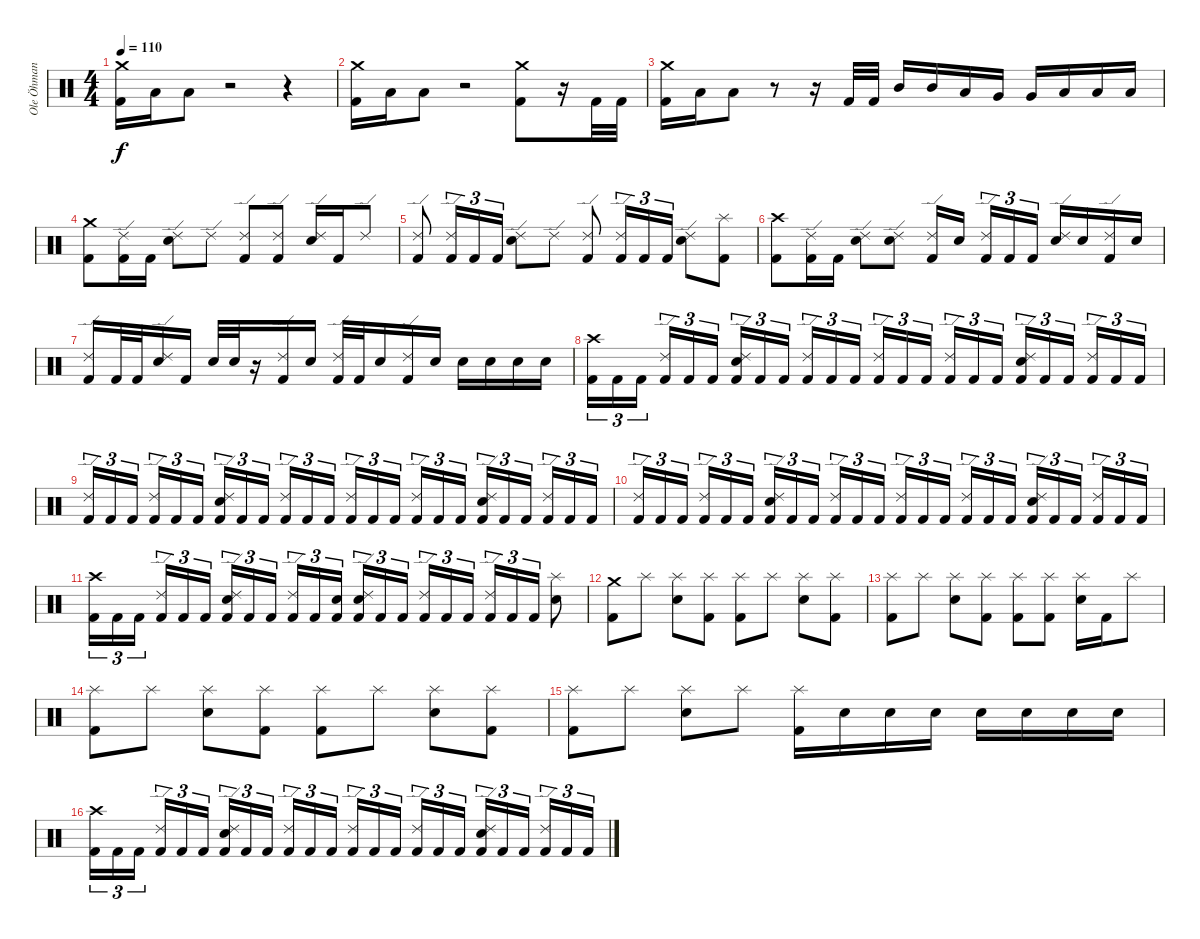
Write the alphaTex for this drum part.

\track ("Ole Öhman" "Ole Öhman") {instrument percussion}
\staff {score}
\articulation defaults
\ts (4 4)
\tempo 110
\clef neutral
\ks c
("Crash medium (hit)" "Kick (hit) 2").16{dy f} "Low Tom (hit)".16 "Low Tom (hit)".8 r.2 r.4 |
("Crash medium (hit)" "Kick (hit) 2").16 "Low Tom (hit)".16 "Low Tom (hit)".8 r.2 ("Crash medium (hit)" "Kick (hit) 2").8 r.16 "Kick (hit) 2".32 "Kick (hit) 2".32 |
("Crash medium (hit)" "Kick (hit) 2").16 "Low Tom (hit)".16 "Low Tom (hit)".8 r.8 r.16 "Kick (hit) 2".32 "Kick (hit) 2".32 "Mid Tom (hit)".16 "Mid Tom (hit)".16 "Low Tom (hit)".16 "Very Low Tom (hit)".16 "Very Low Tom (hit)".16 "Low Floor Tom (hit)".16 "Low Floor Tom (hit)".16 "Low Floor Tom (hit)".16 |
("Crash medium (hit)" "Kick (hit) 2").8 ("Ride (edge) 2" "Kick (hit) 2").16 "Kick (hit) 2".16 ("Ride (edge) 2" "Electric Snare (hit)").8 "Ride (edge) 2".8 ("Ride (edge) 2" "Kick (hit) 2").8 ("Ride (edge) 2" "Kick (hit) 2").8 ("Ride (edge) 2" "Electric Snare (hit)").16 "Kick (hit) 2".16 "Ride (edge) 2".8 |
("Ride (edge) 2" "Kick (hit) 2").8 ("Ride (edge) 2" "Kick (hit) 2").16{tu (3 2)} "Kick (hit) 2".16{tu (3 2)} "Kick (hit) 2".16{tu (3 2)} ("Ride (edge) 2" "Electric Snare (hit)").8 "Ride (edge) 2".8 ("Ride (edge) 2" "Kick (hit) 2").8 ("Ride (edge) 2" "Kick (hit) 2").16{tu (3 2)} "Kick (hit) 2".16{tu (3 2)} "Kick (hit) 2".16{tu (3 2)} ("Ride (edge) 2" "Electric Snare (hit)").8 ("Splash (hit)" "Kick (hit) 2").8 |
("Crash high (hit)" "Kick (hit) 2").8 ("Ride (edge) 2" "Kick (hit) 2").16 "Kick (hit) 2".16 ("Ride (edge) 2" "Electric Snare (hit)").8 ("Ride (edge) 2" "Electric Snare (hit)").8 ("Ride (edge) 2" "Kick (hit) 2").16 "Electric Snare (hit)".16{beam splitsecondary} ("Ride (edge) 2" "Kick (hit) 2").16{tu (3 2)} "Kick (hit) 2".16{tu (3 2)} "Kick (hit) 2".16{tu (3 2)} ("Ride (edge) 2" "Electric Snare (hit)").16 "Electric Snare (hit)".16 ("Ride (edge) 2" "Kick (hit) 2").16 "Electric Snare (hit)".16 |
("Ride (edge) 2" "Kick (hit) 2").16 "Kick (hit) 2".32 "Kick (hit) 2".32 ("Ride (edge) 2" "Electric Snare (hit)").16 "Kick (hit) 2".16 "Electric Snare (hit)".32 "Electric Snare (hit)".32 r.16 ("Ride (edge) 2" "Kick (hit) 2").16 "Electric Snare (hit)".16 ("Ride (edge) 2" "Kick (hit) 2").32 "Kick (hit) 2".32 "Electric Snare (hit)".16 ("Ride (edge) 2" "Kick (hit) 2").16 "Electric Snare (hit)".16 "Electric Snare (hit)".16 "Electric Snare (hit)".16 "Electric Snare (hit)".16 "Electric Snare (hit)".16 |
("Crash high (hit)" "Kick (hit) 2").16{tu (3 2)} "Kick (hit) 2".16{tu (3 2)} "Kick (hit) 2".16{tu (3 2) beam splitsecondary} ("Ride (edge) 2" "Kick (hit) 2").16{tu (3 2)} "Kick (hit) 2".16{tu (3 2)} "Kick (hit) 2".16{tu (3 2)} ("Ride (edge) 2" "Electric Snare (hit)" "Kick (hit) 2").16{tu (3 2)} "Kick (hit) 2".16{tu (3 2)} "Kick (hit) 2".16{tu (3 2) beam splitsecondary} ("Ride (edge) 2" "Kick (hit) 2").16{tu (3 2)} "Kick (hit) 2".16{tu (3 2)} "Kick (hit) 2".16{tu (3 2)} ("Ride (edge) 2" "Kick (hit) 2").16{tu (3 2)} "Kick (hit) 2".16{tu (3 2)} "Kick (hit) 2".16{tu (3 2) beam splitsecondary} ("Ride (edge) 2" "Kick (hit) 2").16{tu (3 2)} "Kick (hit) 2".16{tu (3 2)} "Kick (hit) 2".16{tu (3 2)} ("Ride (edge) 2" "Electric Snare (hit)" "Kick (hit) 2").16{tu (3 2)} "Kick (hit) 2".16{tu (3 2)} "Kick (hit) 2".16{tu (3 2) beam splitsecondary} ("Ride (edge) 2" "Kick (hit) 2").16{tu (3 2)} "Kick (hit) 2".16{tu (3 2)} "Kick (hit) 2".16{tu (3 2)} |
("Ride (edge) 2" "Kick (hit) 2").16{tu (3 2)} "Kick (hit) 2".16{tu (3 2)} "Kick (hit) 2".16{tu (3 2) beam splitsecondary} ("Ride (edge) 2" "Kick (hit) 2").16{tu (3 2)} "Kick (hit) 2".16{tu (3 2)} "Kick (hit) 2".16{tu (3 2)} ("Ride (edge) 2" "Electric Snare (hit)" "Kick (hit) 2").16{tu (3 2)} "Kick (hit) 2".16{tu (3 2)} "Kick (hit) 2".16{tu (3 2) beam splitsecondary} ("Ride (edge) 2" "Kick (hit) 2").16{tu (3 2)} "Kick (hit) 2".16{tu (3 2)} "Kick (hit) 2".16{tu (3 2)} ("Ride (edge) 2" "Kick (hit) 2").16{tu (3 2)} "Kick (hit) 2".16{tu (3 2)} "Kick (hit) 2".16{tu (3 2) beam splitsecondary} ("Ride (edge) 2" "Kick (hit) 2").16{tu (3 2)} "Kick (hit) 2".16{tu (3 2)} "Kick (hit) 2".16{tu (3 2)} ("Ride (edge) 2" "Electric Snare (hit)" "Kick (hit) 2").16{tu (3 2)} "Kick (hit) 2".16{tu (3 2)} "Kick (hit) 2".16{tu (3 2) beam splitsecondary} ("Ride (edge) 2" "Kick (hit) 2").16{tu (3 2)} "Kick (hit) 2".16{tu (3 2)} "Kick (hit) 2".16{tu (3 2)} |
("Ride (edge) 2" "Kick (hit) 2").16{tu (3 2)} "Kick (hit) 2".16{tu (3 2)} "Kick (hit) 2".16{tu (3 2) beam splitsecondary} ("Ride (edge) 2" "Kick (hit) 2").16{tu (3 2)} "Kick (hit) 2".16{tu (3 2)} "Kick (hit) 2".16{tu (3 2)} ("Ride (edge) 2" "Electric Snare (hit)" "Kick (hit) 2").16{tu (3 2)} "Kick (hit) 2".16{tu (3 2)} "Kick (hit) 2".16{tu (3 2) beam splitsecondary} ("Ride (edge) 2" "Kick (hit) 2").16{tu (3 2)} "Kick (hit) 2".16{tu (3 2)} "Kick (hit) 2".16{tu (3 2)} ("Ride (edge) 2" "Kick (hit) 2").16{tu (3 2)} "Kick (hit) 2".16{tu (3 2)} "Kick (hit) 2".16{tu (3 2) beam splitsecondary} ("Ride (edge) 2" "Kick (hit) 2").16{tu (3 2)} "Kick (hit) 2".16{tu (3 2)} "Kick (hit) 2".16{tu (3 2)} ("Ride (edge) 2" "Electric Snare (hit)" "Kick (hit) 2").16{tu (3 2)} "Kick (hit) 2".16{tu (3 2)} "Kick (hit) 2".16{tu (3 2) beam splitsecondary} ("Ride (edge) 2" "Kick (hit) 2").16{tu (3 2)} "Kick (hit) 2".16{tu (3 2)} "Kick (hit) 2".16{tu (3 2)} |
("Crash high (hit)" "Kick (hit) 2").16{tu (3 2)} "Kick (hit) 2".16{tu (3 2)} "Kick (hit) 2".16{tu (3 2) beam splitsecondary} ("Ride (edge) 2" "Kick (hit) 2").16{tu (3 2)} "Kick (hit) 2".16{tu (3 2)} "Kick (hit) 2".16{tu (3 2)} ("Ride (edge) 2" "Electric Snare (hit)" "Kick (hit) 2").16{tu (3 2)} "Kick (hit) 2".16{tu (3 2)} "Kick (hit) 2".16{tu (3 2) beam splitsecondary} ("Ride (edge) 2" "Kick (hit) 2").16{tu (3 2)} "Kick (hit) 2".16{tu (3 2)} ("Electric Snare (hit)" "Kick (hit) 2").16{tu (3 2)} ("Ride (edge) 2" "Electric Snare (hit)" "Kick (hit) 2").16{tu (3 2)} "Kick (hit) 2".16{tu (3 2)} "Kick (hit) 2".16{tu (3 2) beam splitsecondary} ("Ride (edge) 2" "Kick (hit) 2").16{tu (3 2)} "Kick (hit) 2".16{tu (3 2)} "Kick (hit) 2".16{tu (3 2)} ("Ride (edge) 2" "Kick (hit) 2").16{tu (3 2)} "Kick (hit) 2".16{tu (3 2)} "Kick (hit) 2".16{tu (3 2)} ("Splash (hit)" "Electric Snare (hit)").8 |
("Crash medium (hit)" "Kick (hit) 2").8 "Splash (hit)".8 ("Splash (hit)" "Electric Snare (hit)").8 ("Splash (hit)" "Kick (hit) 2").8 ("Splash (hit)" "Kick (hit) 2").8 "Splash (hit)".8 ("Splash (hit)" "Electric Snare (hit)").8 ("Splash (hit)" "Kick (hit) 2").8 |
("Splash (hit)" "Kick (hit) 2").8 "Splash (hit)".8 ("Splash (hit)" "Electric Snare (hit)").8 ("Splash (hit)" "Kick (hit) 2").8 ("Splash (hit)" "Kick (hit) 2").8 ("Splash (hit)" "Kick (hit) 2").8 ("Splash (hit)" "Electric Snare (hit)").16 "Kick (hit) 2".16 "Splash (hit)".8 |
("Splash (hit)" "Kick (hit) 2").8 "Splash (hit)".8 ("Splash (hit)" "Electric Snare (hit)").8 ("Splash (hit)" "Kick (hit) 2").8 ("Splash (hit)" "Kick (hit) 2").8 "Splash (hit)".8 ("Splash (hit)" "Electric Snare (hit)").8 ("Splash (hit)" "Kick (hit) 2").8 |
("Splash (hit)" "Kick (hit) 2").8 "Splash (hit)".8 ("Splash (hit)" "Electric Snare (hit)").8 "Splash (hit)".8 ("Splash (hit)" "Kick (hit) 2").16 "Electric Snare (hit)".16 "Electric Snare (hit)".16 "Electric Snare (hit)".16 "Electric Snare (hit)".16 "Electric Snare (hit)".16 "Electric Snare (hit)".16 "Electric Snare (hit)".16 |
("Crash high (hit)" "Kick (hit) 2").16{tu (3 2)} "Kick (hit) 2".16{tu (3 2)} "Kick (hit) 2".16{tu (3 2) beam splitsecondary} ("Ride (edge) 2" "Kick (hit) 2").16{tu (3 2)} "Kick (hit) 2".16{tu (3 2)} "Kick (hit) 2".16{tu (3 2)} ("Ride (edge) 2" "Electric Snare (hit)" "Kick (hit) 2").16{tu (3 2)} "Kick (hit) 2".16{tu (3 2)} "Kick (hit) 2".16{tu (3 2) beam splitsecondary} ("Ride (edge) 2" "Kick (hit) 2").16{tu (3 2)} "Kick (hit) 2".16{tu (3 2)} "Kick (hit) 2".16{tu (3 2)} ("Ride (edge) 2" "Kick (hit) 2").16{tu (3 2)} "Kick (hit) 2".16{tu (3 2)} "Kick (hit) 2".16{tu (3 2) beam splitsecondary} ("Ride (edge) 2" "Kick (hit) 2").16{tu (3 2)} "Kick (hit) 2".16{tu (3 2)} "Kick (hit) 2".16{tu (3 2)} ("Ride (edge) 2" "Electric Snare (hit)" "Kick (hit) 2").16{tu (3 2)} "Kick (hit) 2".16{tu (3 2)} "Kick (hit) 2".16{tu (3 2) beam splitsecondary} ("Ride (edge) 2" "Kick (hit) 2").16{tu (3 2)} "Kick (hit) 2".16{tu (3 2)} "Kick (hit) 2".16{tu (3 2)}
